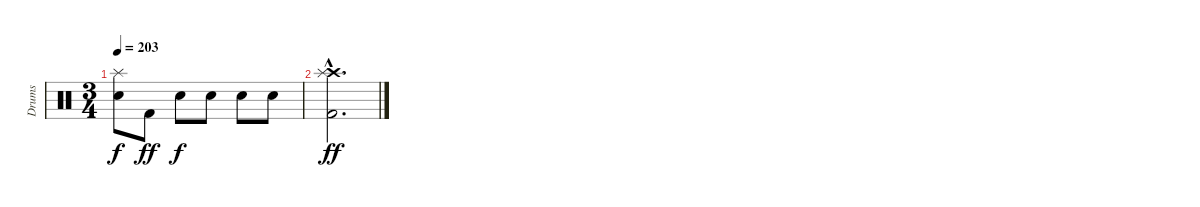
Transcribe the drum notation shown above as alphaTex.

\track ("Drums" "Drums") {instrument percussion}
\staff {score}
\articulation defaults
\ts (3 4)
\tempo 203
\clef neutral
\ks c
("Splash (hit)" "Electric Snare (hit)").8{dy f} "Kick (hit) 2".8{dy ff} "Electric Snare (hit)".8{dy f} "Electric Snare (hit)".8 "Electric Snare (hit)".8 "Electric Snare (hit)".8 |
("Crash high (hit)"{hac} "Splash (hit)"{hac} "Kick (hit) 2"{hac}).2{d dy ff}
